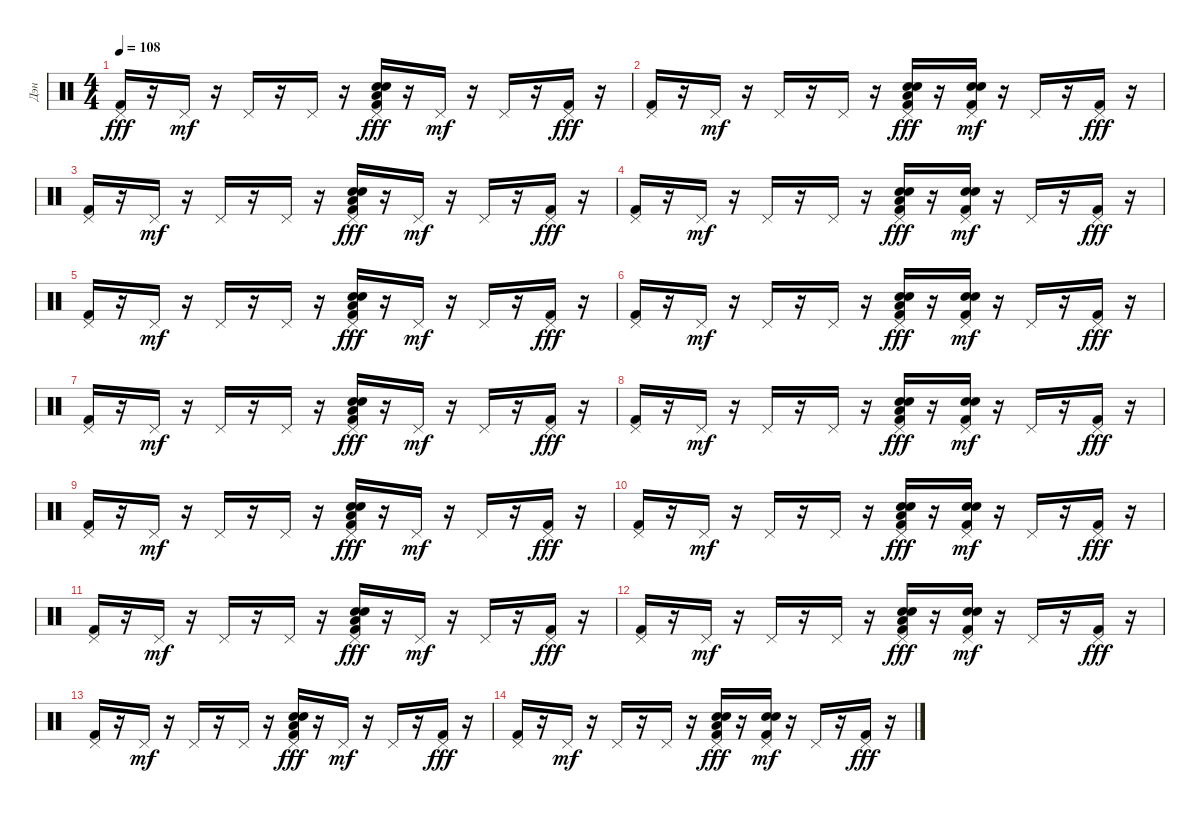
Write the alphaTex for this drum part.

\track ("Дэн" "Дэн") {instrument percussion}
\staff {score}
\articulation defaults
\ts (4 4)
\tempo 108
\clef neutral
\ks c
("Pedal Hi-Hat (hit)" "Kick (hit) 2").16{dy fff} r.16 "Pedal Hi-Hat (hit)".16{dy mf} r.16 "Pedal Hi-Hat (hit)".16 r.16 "Pedal Hi-Hat (hit)".16 r.16 ("Pedal Hi-Hat (hit)" "Snare (hit) 2" "Low Floor Tom (hit)" "Electric Snare (hit)" "Kick (hit) 2").16{dy fff} r.16 "Pedal Hi-Hat (hit)".16{dy mf} r.16 "Pedal Hi-Hat (hit)".16 r.16 ("Pedal Hi-Hat (hit)" "Kick (hit) 2").16{dy fff} r.16 |
("Pedal Hi-Hat (hit)" "Kick (hit) 2").16 r.16 "Pedal Hi-Hat (hit)".16{dy mf} r.16 "Pedal Hi-Hat (hit)".16 r.16 "Pedal Hi-Hat (hit)".16 r.16 ("Pedal Hi-Hat (hit)" "Snare (hit) 2" "Low Floor Tom (hit)" "Electric Snare (hit)" "Kick (hit) 2").16{dy fff} r.16 ("Pedal Hi-Hat (hit)" "Snare (hit) 2" "Electric Snare (hit)" "Kick (hit) 2").16{dy mf} r.16 "Pedal Hi-Hat (hit)".16 r.16 ("Pedal Hi-Hat (hit)" "Kick (hit) 2").16{dy fff} r.16 |
("Pedal Hi-Hat (hit)" "Kick (hit) 2").16 r.16 "Pedal Hi-Hat (hit)".16{dy mf} r.16 "Pedal Hi-Hat (hit)".16 r.16 "Pedal Hi-Hat (hit)".16 r.16 ("Pedal Hi-Hat (hit)" "Snare (hit) 2" "Low Floor Tom (hit)" "Electric Snare (hit)" "Kick (hit) 2").16{dy fff} r.16 "Pedal Hi-Hat (hit)".16{dy mf} r.16 "Pedal Hi-Hat (hit)".16 r.16 ("Pedal Hi-Hat (hit)" "Kick (hit) 2").16{dy fff} r.16 |
("Pedal Hi-Hat (hit)" "Kick (hit) 2").16 r.16 "Pedal Hi-Hat (hit)".16{dy mf} r.16 "Pedal Hi-Hat (hit)".16 r.16 "Pedal Hi-Hat (hit)".16 r.16 ("Pedal Hi-Hat (hit)" "Snare (hit) 2" "Low Floor Tom (hit)" "Electric Snare (hit)" "Kick (hit) 2").16{dy fff} r.16 ("Pedal Hi-Hat (hit)" "Snare (hit) 2" "Electric Snare (hit)" "Kick (hit) 2").16{dy mf} r.16 "Pedal Hi-Hat (hit)".16 r.16 ("Pedal Hi-Hat (hit)" "Kick (hit) 2").16{dy fff} r.16 |
("Pedal Hi-Hat (hit)" "Kick (hit) 2").16 r.16 "Pedal Hi-Hat (hit)".16{dy mf} r.16 "Pedal Hi-Hat (hit)".16 r.16 "Pedal Hi-Hat (hit)".16 r.16 ("Pedal Hi-Hat (hit)" "Snare (hit) 2" "Low Floor Tom (hit)" "Electric Snare (hit)" "Kick (hit) 2").16{dy fff} r.16 "Pedal Hi-Hat (hit)".16{dy mf} r.16 "Pedal Hi-Hat (hit)".16 r.16 ("Pedal Hi-Hat (hit)" "Kick (hit) 2").16{dy fff} r.16 |
("Pedal Hi-Hat (hit)" "Kick (hit) 2").16 r.16 "Pedal Hi-Hat (hit)".16{dy mf} r.16 "Pedal Hi-Hat (hit)".16 r.16 "Pedal Hi-Hat (hit)".16 r.16 ("Pedal Hi-Hat (hit)" "Snare (hit) 2" "Low Floor Tom (hit)" "Electric Snare (hit)" "Kick (hit) 2").16{dy fff} r.16 ("Pedal Hi-Hat (hit)" "Snare (hit) 2" "Electric Snare (hit)" "Kick (hit) 2").16{dy mf} r.16 "Pedal Hi-Hat (hit)".16 r.16 ("Pedal Hi-Hat (hit)" "Kick (hit) 2").16{dy fff} r.16 |
("Pedal Hi-Hat (hit)" "Kick (hit) 2").16 r.16 "Pedal Hi-Hat (hit)".16{dy mf} r.16 "Pedal Hi-Hat (hit)".16 r.16 "Pedal Hi-Hat (hit)".16 r.16 ("Pedal Hi-Hat (hit)" "Snare (hit) 2" "Low Floor Tom (hit)" "Electric Snare (hit)" "Kick (hit) 2").16{dy fff} r.16 "Pedal Hi-Hat (hit)".16{dy mf} r.16 "Pedal Hi-Hat (hit)".16 r.16 ("Pedal Hi-Hat (hit)" "Kick (hit) 2").16{dy fff} r.16 |
("Pedal Hi-Hat (hit)" "Kick (hit) 2").16 r.16 "Pedal Hi-Hat (hit)".16{dy mf} r.16 "Pedal Hi-Hat (hit)".16 r.16 "Pedal Hi-Hat (hit)".16 r.16 ("Pedal Hi-Hat (hit)" "Snare (hit) 2" "Low Floor Tom (hit)" "Electric Snare (hit)" "Kick (hit) 2").16{dy fff} r.16 ("Pedal Hi-Hat (hit)" "Snare (hit) 2" "Electric Snare (hit)" "Kick (hit) 2").16{dy mf} r.16 "Pedal Hi-Hat (hit)".16 r.16 ("Pedal Hi-Hat (hit)" "Kick (hit) 2").16{dy fff} r.16 |
("Pedal Hi-Hat (hit)" "Kick (hit) 2").16 r.16 "Pedal Hi-Hat (hit)".16{dy mf} r.16 "Pedal Hi-Hat (hit)".16 r.16 "Pedal Hi-Hat (hit)".16 r.16 ("Pedal Hi-Hat (hit)" "Snare (hit) 2" "Low Floor Tom (hit)" "Electric Snare (hit)" "Kick (hit) 2").16{dy fff} r.16 "Pedal Hi-Hat (hit)".16{dy mf} r.16 "Pedal Hi-Hat (hit)".16 r.16 ("Pedal Hi-Hat (hit)" "Kick (hit) 2").16{dy fff} r.16 |
("Pedal Hi-Hat (hit)" "Kick (hit) 2").16 r.16 "Pedal Hi-Hat (hit)".16{dy mf} r.16 "Pedal Hi-Hat (hit)".16 r.16 "Pedal Hi-Hat (hit)".16 r.16 ("Pedal Hi-Hat (hit)" "Snare (hit) 2" "Low Floor Tom (hit)" "Electric Snare (hit)" "Kick (hit) 2").16{dy fff} r.16 ("Pedal Hi-Hat (hit)" "Snare (hit) 2" "Electric Snare (hit)" "Kick (hit) 2").16{dy mf} r.16 "Pedal Hi-Hat (hit)".16 r.16 ("Pedal Hi-Hat (hit)" "Kick (hit) 2").16{dy fff} r.16 |
("Pedal Hi-Hat (hit)" "Kick (hit) 2").16 r.16 "Pedal Hi-Hat (hit)".16{dy mf} r.16 "Pedal Hi-Hat (hit)".16 r.16 "Pedal Hi-Hat (hit)".16 r.16 ("Pedal Hi-Hat (hit)" "Snare (hit) 2" "Low Floor Tom (hit)" "Electric Snare (hit)" "Kick (hit) 2").16{dy fff} r.16 "Pedal Hi-Hat (hit)".16{dy mf} r.16 "Pedal Hi-Hat (hit)".16 r.16 ("Pedal Hi-Hat (hit)" "Kick (hit) 2").16{dy fff} r.16 |
("Pedal Hi-Hat (hit)" "Kick (hit) 2").16 r.16 "Pedal Hi-Hat (hit)".16{dy mf} r.16 "Pedal Hi-Hat (hit)".16 r.16 "Pedal Hi-Hat (hit)".16 r.16 ("Pedal Hi-Hat (hit)" "Snare (hit) 2" "Low Floor Tom (hit)" "Electric Snare (hit)" "Kick (hit) 2").16{dy fff} r.16 ("Pedal Hi-Hat (hit)" "Snare (hit) 2" "Electric Snare (hit)" "Kick (hit) 2").16{dy mf} r.16 "Pedal Hi-Hat (hit)".16 r.16 ("Pedal Hi-Hat (hit)" "Kick (hit) 2").16{dy fff} r.16 |
("Pedal Hi-Hat (hit)" "Kick (hit) 2").16 r.16 "Pedal Hi-Hat (hit)".16{dy mf} r.16 "Pedal Hi-Hat (hit)".16 r.16 "Pedal Hi-Hat (hit)".16 r.16 ("Pedal Hi-Hat (hit)" "Snare (hit) 2" "Low Floor Tom (hit)" "Electric Snare (hit)" "Kick (hit) 2").16{dy fff} r.16 "Pedal Hi-Hat (hit)".16{dy mf} r.16 "Pedal Hi-Hat (hit)".16 r.16 ("Pedal Hi-Hat (hit)" "Kick (hit) 2").16{dy fff} r.16 |
("Pedal Hi-Hat (hit)" "Kick (hit) 2").16 r.16 "Pedal Hi-Hat (hit)".16{dy mf} r.16 "Pedal Hi-Hat (hit)".16 r.16 "Pedal Hi-Hat (hit)".16 r.16 ("Pedal Hi-Hat (hit)" "Snare (hit) 2" "Low Floor Tom (hit)" "Electric Snare (hit)" "Kick (hit) 2").16{dy fff} r.16 ("Pedal Hi-Hat (hit)" "Snare (hit) 2" "Electric Snare (hit)" "Kick (hit) 2").16{dy mf} r.16 "Pedal Hi-Hat (hit)".16 r.16 ("Pedal Hi-Hat (hit)" "Kick (hit) 2").16{dy fff} r.16
